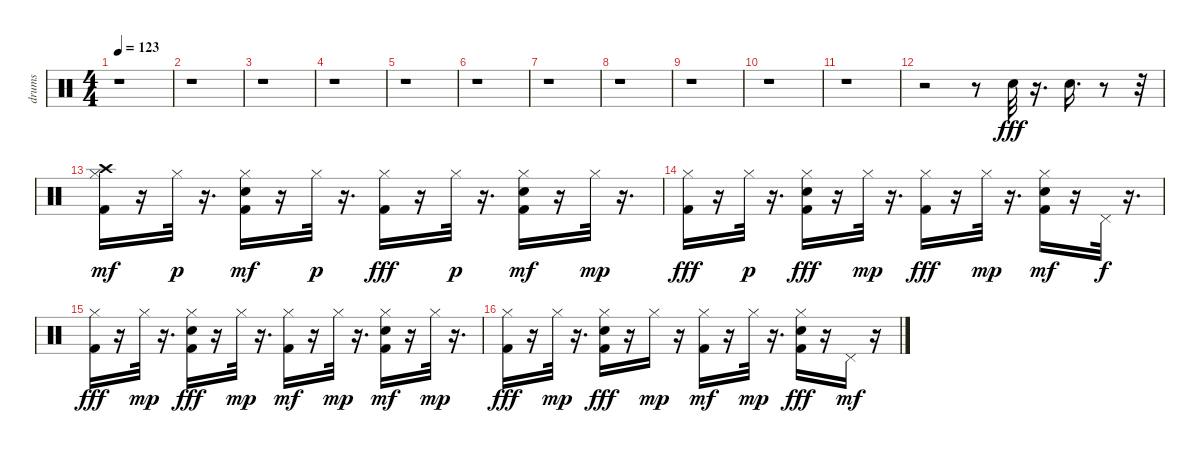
\track ("drums   " "drums   ") {instrument percussion}
\staff {score}
\articulation defaults
\ts (4 4)
\tempo 123
\clef neutral
\ks c
r.1{dy fff} |
r.1 |
r.1 |
r.1 |
r.1 |
r.1 |
r.1 |
r.1 |
r.1 |
r.1 |
r.1 |
r.2 r.8 "Snare (hit) 2".32 r.16{d} "Snare (hit) 2".16{d} r.8 r.32 |
("Kick (hit) 2" "Hi-Hat (closed)" "Crash high (hit)").16{dy mf} r.16 "Hi-Hat (closed)".32{dy p} r.16{d} ("Snare (hit) 2" "Kick (hit) 2" "Hi-Hat (closed)").16{dy mf} r.16 "Hi-Hat (closed)".32{dy p} r.16{d} ("Hi-Hat (closed)" "Kick (hit) 2").16{dy fff} r.16 "Hi-Hat (closed)".32{dy p} r.16{d} ("Snare (hit) 2" "Kick (hit) 2" "Hi-Hat (closed)").16{dy mf} r.16 "Hi-Hat (closed)".32{dy mp} r.16{d} |
("Hi-Hat (closed)" "Kick (hit) 2").16{dy fff} r.16 "Hi-Hat (closed)".32{dy p} r.16{d} ("Snare (hit) 2" "Kick (hit) 2" "Hi-Hat (closed)").16{dy fff} r.16 "Hi-Hat (closed)".32{dy mp} r.16{d} ("Hi-Hat (closed)" "Kick (hit) 2").16{dy fff} r.16 "Hi-Hat (closed)".32{dy mp} r.16{d} ("Snare (hit) 2" "Kick (hit) 2" "Hi-Hat (closed)").16{dy mf} r.16 "Pedal Hi-Hat (hit)".32{dy f} r.16{d} |
("Hi-Hat (closed)" "Kick (hit) 2").16{dy fff} r.16 "Hi-Hat (closed)".32{dy mp} r.16{d} ("Hi-Hat (closed)" "Snare (hit) 2" "Kick (hit) 2").16{dy fff} r.16 "Hi-Hat (closed)".32{dy mp} r.16{d} ("Kick (hit) 2" "Hi-Hat (closed)").16{dy mf} r.16 "Hi-Hat (closed)".32{dy mp} r.16{d} ("Snare (hit) 2" "Kick (hit) 2" "Hi-Hat (closed)").16{dy mf} r.16 "Hi-Hat (closed)".32{dy mp} r.16{d} |
("Hi-Hat (closed)" "Kick (hit) 2").16{dy fff} r.16 "Hi-Hat (closed)".32{dy mp} r.16{d} ("Kick (hit) 2" "Hi-Hat (closed)" "Snare (hit) 2").16{dy fff} r.16 "Hi-Hat (closed)".16{dy mp} r.16 ("Kick (hit) 2" "Hi-Hat (closed)").16{dy mf} r.16 "Hi-Hat (closed)".32{dy mp} r.16{d} ("Kick (hit) 2" "Hi-Hat (closed)" "Snare (hit) 2").16{dy fff} r.16 "Pedal Hi-Hat (hit)".16{dy mf} r.16
